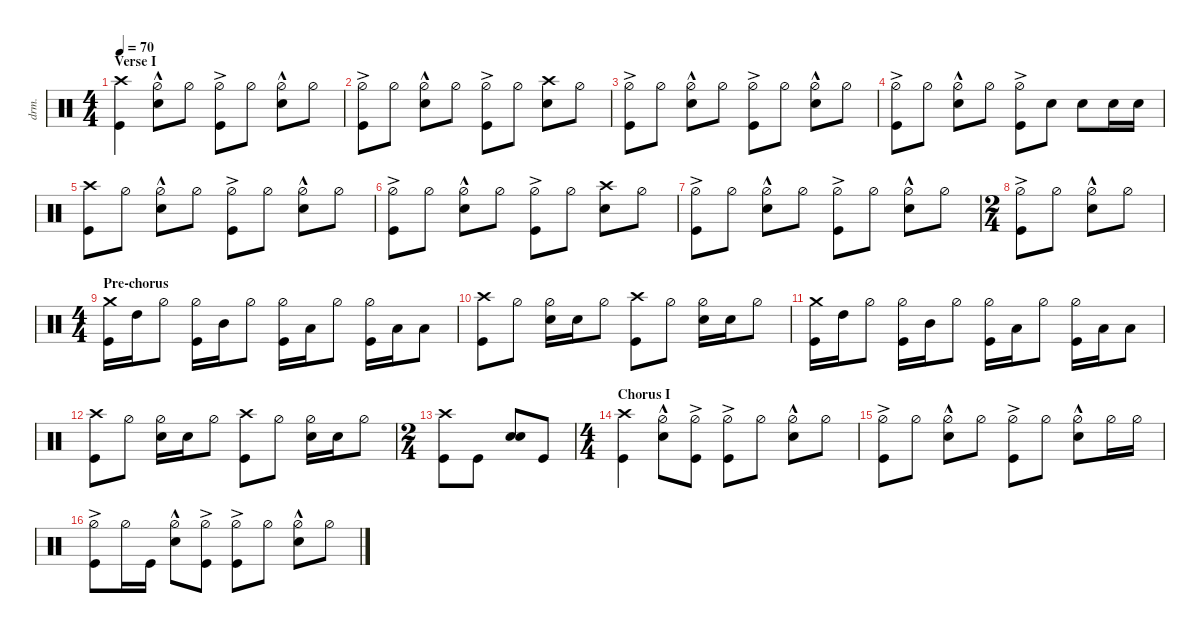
\defaultSystemsLayout 4
\hideDynamics
\bracketExtendMode nobrackets
\otherSystemsTrackNameOrientation horizontal
\track ("Drums" "drm.") {defaultSystemsLayout 4 multiBarRest instrument percussion}
\staff {score}
\articulation defaults
\ts (4 4)
\section ("" "Verse I")
\tempo 70
\clef neutral
\ks c
("Crash high (hit)" "Kick (hit)").4{dy f} ("Hi-Hat (half)"{hac} "Snare (hit) 2").8 "Hi-Hat (half)".8 ("Kick (hit)" "Hi-Hat (half)"{ac}).8 "Hi-Hat (half)".8 ("Hi-Hat (half)"{hac} "Snare (hit) 2").8 "Hi-Hat (half)".8 |
("Kick (hit)" "Hi-Hat (half)"{ac}).8 "Hi-Hat (half)".8 ("Hi-Hat (half)"{hac} "Snare (hit) 2").8 "Hi-Hat (half)".8 ("Kick (hit)" "Hi-Hat (half)"{ac}).8 "Hi-Hat (half)".8 ("Snare (hit) 2" "Crash high (hit)").8 "Hi-Hat (half)".8 |
("Kick (hit)" "Hi-Hat (half)"{ac}).8 "Hi-Hat (half)".8 ("Hi-Hat (half)"{hac} "Snare (hit) 2").8 "Hi-Hat (half)".8 ("Kick (hit)" "Hi-Hat (half)"{ac}).8 "Hi-Hat (half)".8 ("Snare (hit) 2" "Hi-Hat (half)"{hac}).8 "Hi-Hat (half)".8 |
("Kick (hit)" "Hi-Hat (half)"{ac}).8 "Hi-Hat (half)".8 ("Hi-Hat (half)"{hac} "Snare (hit) 2").8 "Hi-Hat (half)".8 ("Kick (hit)" "Hi-Hat (half)"{ac}).8 "Snare (hit) 2".8 "Snare (hit) 2".8 "Snare (hit) 2".16 "Snare (hit) 2".16 |
("Crash high (hit)" "Kick (hit)").8 "Hi-Hat (half)".8 ("Hi-Hat (half)"{hac} "Snare (hit) 2").8 "Hi-Hat (half)".8 ("Kick (hit)" "Hi-Hat (half)"{ac}).8 "Hi-Hat (half)".8 ("Hi-Hat (half)"{hac} "Snare (hit) 2").8 "Hi-Hat (half)".8 |
("Kick (hit)" "Hi-Hat (half)"{ac}).8 "Hi-Hat (half)".8 ("Hi-Hat (half)"{hac} "Snare (hit) 2").8 "Hi-Hat (half)".8 ("Kick (hit)" "Hi-Hat (half)"{ac}).8 "Hi-Hat (half)".8 ("Snare (hit) 2" "Crash high (hit)").8 "Hi-Hat (half)".8 |
("Kick (hit)" "Hi-Hat (half)"{ac}).8 "Hi-Hat (half)".8 ("Hi-Hat (half)"{hac} "Snare (hit) 2").8 "Hi-Hat (half)".8 ("Kick (hit)" "Hi-Hat (half)"{ac}).8 "Hi-Hat (half)".8 ("Snare (hit) 2" "Hi-Hat (half)"{hac}).8 "Hi-Hat (half)".8 |
\ts (2 4)
\beaming (8 2 2)
("Kick (hit)" "Hi-Hat (half)"{ac}).8 "Hi-Hat (half)".8 ("Hi-Hat (half)"{hac} "Snare (hit) 2").8 "Hi-Hat (half)".8 |
\ts (4 4)
\beaming (8 2 2 2 2)
\section ("" "Pre-chorus")
("Crash medium (hit)" "Kick (hit)").16 "High Tom (hit)".16{dy ff} "Hi-Hat (half)".8{dy f} ("Kick (hit)" "Hi-Hat (half)").16 "Mid Tom (hit)".16{dy ff} "Hi-Hat (half)".8{dy f} ("Kick (hit)" "Hi-Hat (half)").16 "Low Tom (hit)".16{dy ff} "Hi-Hat (half)".8{dy f} ("Kick (hit)" "Hi-Hat (half)").16 "Low Tom (hit)".16{dy ff} "Low Tom (hit)".8 |
("Crash high (hit)" "Kick (hit)").8 "Hi-Hat (half)".8 ("Hi-Hat (half)" "Snare (hit) 2").16 "Snare (hit) 2".16 "Hi-Hat (half)".8 ("Crash high (hit)" "Kick (hit)").8 "Hi-Hat (half)".8 ("Hi-Hat (half)" "Snare (hit) 2").16 "Snare (hit) 2".16 "Hi-Hat (half)".8 |
("Crash medium (hit)" "Kick (hit)").16{dy f} "High Tom (hit)".16{dy ff} "Hi-Hat (half)".8{dy f} ("Kick (hit)" "Hi-Hat (half)").16 "Mid Tom (hit)".16{dy ff} "Hi-Hat (half)".8{dy f} ("Kick (hit)" "Hi-Hat (half)").16 "Low Tom (hit)".16{dy ff} "Hi-Hat (half)".8{dy f} ("Kick (hit)" "Hi-Hat (half)").16 "Low Tom (hit)".16{dy ff} "Low Tom (hit)".8 |
("Crash high (hit)" "Kick (hit)").8 "Hi-Hat (half)".8 ("Hi-Hat (half)" "Snare (hit) 2").16 "Snare (hit) 2".16 "Hi-Hat (half)".8 ("Crash high (hit)" "Kick (hit)").8 "Hi-Hat (half)".8 ("Hi-Hat (half)" "Snare (hit) 2").16 "Snare (hit) 2".16 "Hi-Hat (half)".8 |
\ts (2 4)
\beaming (8 2 2)
("Crash high (hit)" "Kick (hit)").8 "Kick (hit)".8 ("Snare (hit) 2" "Snare (hit) 2").8 "Kick (hit)".8 |
\ts (4 4)
\beaming (8 2 2 2 2)
\section ("" "Chorus I")
("Crash high (hit)" "Kick (hit)").4{dy f} ("Hi-Hat (half)"{hac} "Snare (hit) 2").8 ("Kick (hit)" "Hi-Hat (half)"{ac}).8 ("Kick (hit)" "Hi-Hat (half)"{ac}).8 "Hi-Hat (half)".8 ("Hi-Hat (half)"{hac} "Snare (hit) 2").8 "Hi-Hat (half)".8 |
("Kick (hit)" "Hi-Hat (half)"{ac}).8 "Hi-Hat (half)".8 ("Hi-Hat (half)"{hac} "Snare (hit) 2").8 "Hi-Hat (half)".8 ("Kick (hit)" "Hi-Hat (half)"{ac}).8 "Hi-Hat (half)".8 ("Hi-Hat (half)"{hac} "Snare (hit) 2").8 "Hi-Hat (half)".16 "Hi-Hat (half)".16 |
("Kick (hit)" "Hi-Hat (half)"{ac}).8 "Hi-Hat (half)".16 "Kick (hit)".16 ("Snare (hit) 2" "Hi-Hat (half)"{hac}).8 ("Kick (hit)" "Hi-Hat (half)"{ac}).8 ("Kick (hit)" "Hi-Hat (half)"{ac}).8 "Hi-Hat (half)".8 ("Snare (hit) 2" "Hi-Hat (half)"{hac}).8 "Hi-Hat (half)".8
